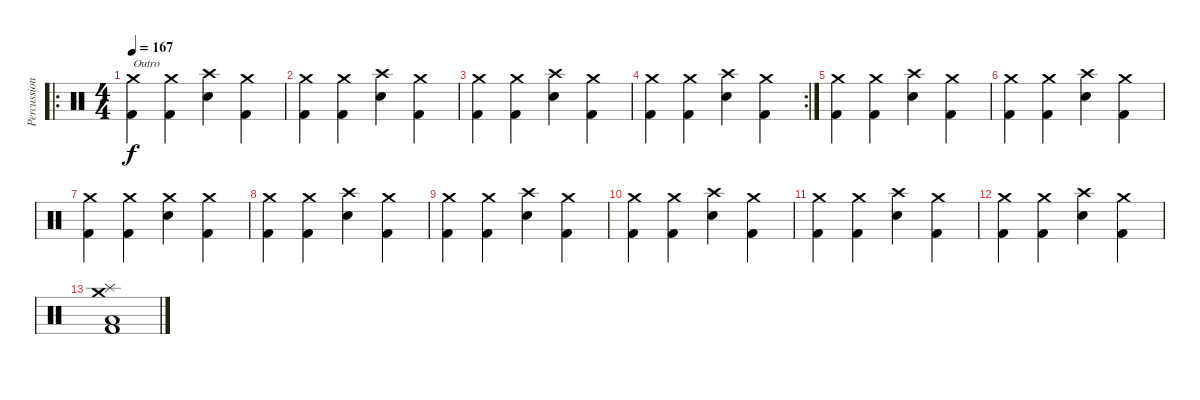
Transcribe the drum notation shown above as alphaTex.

\track ("Percussion" "Percussion") {instrument percussion}
\staff {score}
\articulation defaults
\ro
\ts (4 4)
\section ("" "")
\tempo 167
\clef neutral
\ks c
("Crash medium (hit)" "Kick (hit) 2").4{txt "Outro" dy f} ("Crash medium (hit)" "Kick (hit) 2").4 ("Crash high (hit)" "Electric Snare (hit)").4 ("Crash medium (hit)" "Kick (hit) 2").4 |
("Crash medium (hit)" "Kick (hit) 2").4 ("Crash medium (hit)" "Kick (hit) 2").4 ("Crash high (hit)" "Electric Snare (hit)").4 ("Crash medium (hit)" "Kick (hit) 2").4 |
("Crash medium (hit)" "Kick (hit) 2").4 ("Crash medium (hit)" "Kick (hit) 2").4 ("Crash high (hit)" "Electric Snare (hit)").4 ("Crash medium (hit)" "Kick (hit) 2").4 |
\rc 2
("Crash medium (hit)" "Kick (hit) 2").4 ("Crash medium (hit)" "Kick (hit) 2").4 ("Crash high (hit)" "Electric Snare (hit)").4 ("Crash medium (hit)" "Kick (hit) 2").4 |
("Crash medium (hit)" "Kick (hit) 2").4 ("Crash medium (hit)" "Kick (hit) 2").4 ("Crash high (hit)" "Electric Snare (hit)").4 ("Crash medium (hit)" "Kick (hit) 2").4 |
("Crash medium (hit)" "Kick (hit) 2").4 ("Crash medium (hit)" "Kick (hit) 2").4 ("Crash high (hit)" "Electric Snare (hit)").4 ("Crash medium (hit)" "Kick (hit) 2").4 |
("Crash medium (hit)" "Kick (hit) 2").4 ("Crash medium (hit)" "Kick (hit) 2").4 ("Crash medium (hit)" "Electric Snare (hit)").4 ("Crash medium (hit)" "Kick (hit) 2").4 |
("Crash medium (hit)" "Kick (hit) 2").4 ("Crash medium (hit)" "Kick (hit) 2").4 ("Crash high (hit)" "Electric Snare (hit)").4 ("Crash medium (hit)" "Kick (hit) 2").4 |
("Crash medium (hit)" "Kick (hit) 2").4 ("Crash medium (hit)" "Kick (hit) 2").4 ("Crash high (hit)" "Electric Snare (hit)").4 ("Crash medium (hit)" "Kick (hit) 2").4 |
("Crash medium (hit)" "Kick (hit) 2").4 ("Crash medium (hit)" "Kick (hit) 2").4 ("Crash high (hit)" "Electric Snare (hit)").4 ("Crash medium (hit)" "Kick (hit) 2").4 |
("Crash medium (hit)" "Kick (hit) 2").4 ("Crash medium (hit)" "Kick (hit) 2").4 ("Crash high (hit)" "Electric Snare (hit)").4 ("Crash medium (hit)" "Kick (hit) 2").4 |
("Crash medium (hit)" "Kick (hit) 2").4 ("Crash medium (hit)" "Kick (hit) 2").4 ("Crash high (hit)" "Electric Snare (hit)").4 ("Crash medium (hit)" "Kick (hit) 2").4 |
("Crash medium (hit)" "Splash (hit)" "Low Floor Tom (hit)" "Kick (hit) 2").1
